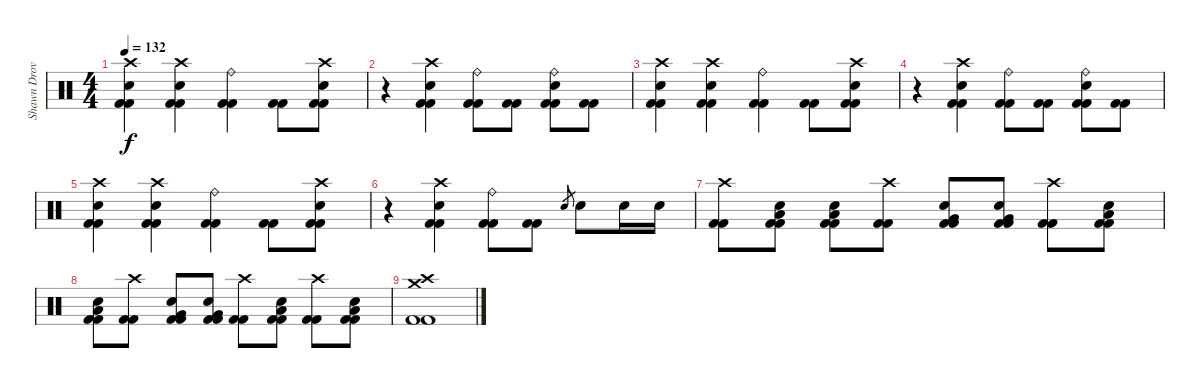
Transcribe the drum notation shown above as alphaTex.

\track ("Shawn Drover" "Shawn Drov") {instrument percussion}
\staff {score}
\articulation defaults
\ts (4 4)
\tempo 132
\clef neutral
\ks c
("Crash high (hit)" "Electric Snare (hit)" "Kick (hit) 2" "Kick (hit) 2").4{dy f} ("Crash high (hit)" "Electric Snare (hit)" "Kick (hit) 2" "Kick (hit) 2").4 ("Ride (bell)" "Kick (hit) 2" "Kick (hit) 2").4 ("Kick (hit) 2" "Kick (hit) 2").8 ("Crash high (hit)" "Electric Snare (hit)" "Kick (hit) 2" "Kick (hit) 2").8 |
r.4 ("Crash high (hit)" "Electric Snare (hit)" "Kick (hit) 2" "Kick (hit) 2").4 ("Ride (bell)" "Kick (hit) 2" "Kick (hit) 2").8 ("Kick (hit) 2" "Kick (hit) 2").8 ("Ride (bell)" "Electric Snare (hit)" "Kick (hit) 2" "Kick (hit) 2").8 ("Kick (hit) 2" "Kick (hit) 2").8 |
("Crash high (hit)" "Electric Snare (hit)" "Kick (hit) 2" "Kick (hit) 2").4 ("Crash high (hit)" "Electric Snare (hit)" "Kick (hit) 2" "Kick (hit) 2").4 ("Ride (bell)" "Kick (hit) 2" "Kick (hit) 2").4 ("Kick (hit) 2" "Kick (hit) 2").8 ("Crash high (hit)" "Electric Snare (hit)" "Kick (hit) 2" "Kick (hit) 2").8 |
r.4 ("Crash high (hit)" "Electric Snare (hit)" "Kick (hit) 2" "Kick (hit) 2").4 ("Ride (bell)" "Kick (hit) 2" "Kick (hit) 2").8 ("Kick (hit) 2" "Kick (hit) 2").8 ("Ride (bell)" "Electric Snare (hit)" "Kick (hit) 2" "Kick (hit) 2").8 ("Kick (hit) 2" "Kick (hit) 2").8 |
("Crash high (hit)" "Electric Snare (hit)" "Kick (hit) 2" "Kick (hit) 2").4 ("Crash high (hit)" "Electric Snare (hit)" "Kick (hit) 2" "Kick (hit) 2").4 ("Ride (bell)" "Kick (hit) 2" "Kick (hit) 2").4 ("Kick (hit) 2" "Kick (hit) 2").8 ("Crash high (hit)" "Electric Snare (hit)" "Kick (hit) 2" "Kick (hit) 2").8 |
r.4 ("Crash high (hit)" "Electric Snare (hit)" "Kick (hit) 2" "Kick (hit) 2").4 ("Ride (bell)" "Kick (hit) 2" "Kick (hit) 2").8 ("Kick (hit) 2" "Kick (hit) 2").8 "Electric Snare (hit)".8{gr} "Electric Snare (hit)".8 "Electric Snare (hit)".16 "Electric Snare (hit)".16 |
("Crash high (hit)" "Kick (hit) 2" "Kick (hit) 2").8 ("Low Tom (hit)" "Electric Snare (hit)" "Kick (hit) 2" "Kick (hit) 2").8 ("Low Tom (hit)" "Electric Snare (hit)" "Kick (hit) 2" "Kick (hit) 2").8 ("Crash high (hit)" "Kick (hit) 2" "Kick (hit) 2").8 ("Very Low Tom (hit)" "Electric Snare (hit)" "Kick (hit) 2" "Kick (hit) 2").8 ("Very Low Tom (hit)" "Electric Snare (hit)" "Kick (hit) 2" "Kick (hit) 2").8 ("Crash high (hit)" "Kick (hit) 2" "Kick (hit) 2").8 ("Low Floor Tom (hit)" "Electric Snare (hit)" "Kick (hit) 2" "Kick (hit) 2").8 |
("Low Tom (hit)" "Electric Snare (hit)" "Kick (hit) 2" "Kick (hit) 2").8 ("Crash high (hit)" "Kick (hit) 2" "Kick (hit) 2").8 ("Very Low Tom (hit)" "Electric Snare (hit)" "Kick (hit) 2" "Kick (hit) 2").8 ("Very Low Tom (hit)" "Electric Snare (hit)" "Kick (hit) 2" "Kick (hit) 2").8 ("Crash high (hit)" "Kick (hit) 2" "Kick (hit) 2").8 ("Low Floor Tom (hit)" "Electric Snare (hit)" "Kick (hit) 2" "Kick (hit) 2").8 ("Crash high (hit)" "Kick (hit) 2" "Kick (hit) 2").8 ("Low Floor Tom (hit)" "Electric Snare (hit)" "Kick (hit) 2" "Kick (hit) 2").8 |
("Crash medium (hit)" "Crash high (hit)" "Kick (hit) 2" "Kick (hit) 2").1
